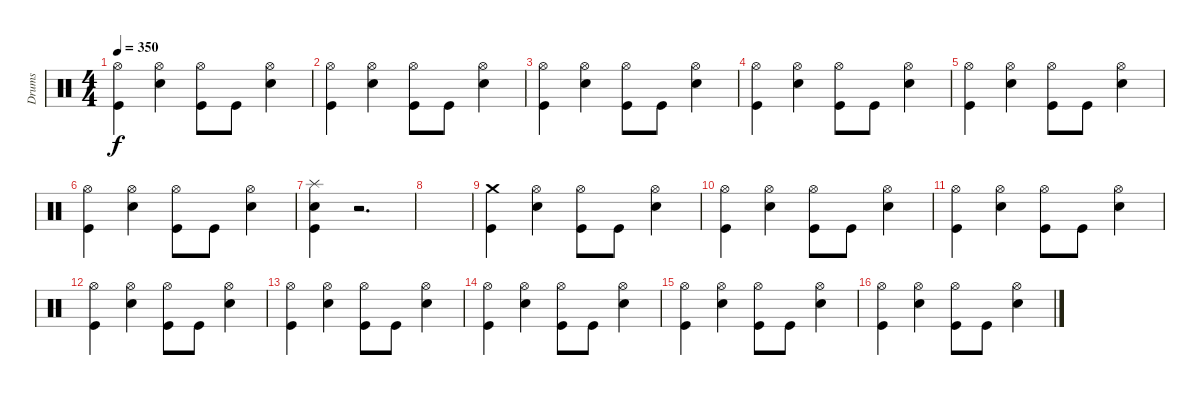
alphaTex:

\track ("Drums" "Drums") {instrument percussion}
\staff {score}
\articulation defaults
\ts (4 4)
\tempo 350
\clef neutral
\ks c
("Hi-Hat (open)" "Kick (hit)").4{dy f} ("Hi-Hat (open)" "Snare (hit) 2").4 ("Hi-Hat (open)" "Kick (hit)").8 "Kick (hit)".8 ("Hi-Hat (open)" "Snare (hit) 2").4 |
("Hi-Hat (open)" "Kick (hit)").4 ("Hi-Hat (open)" "Snare (hit) 2").4 ("Hi-Hat (open)" "Kick (hit)").8 "Kick (hit)".8 ("Hi-Hat (open)" "Snare (hit) 2").4 |
("Hi-Hat (open)" "Kick (hit)").4 ("Hi-Hat (open)" "Snare (hit) 2").4 ("Hi-Hat (open)" "Kick (hit)").8 "Kick (hit)".8 ("Hi-Hat (open)" "Snare (hit) 2").4 |
("Hi-Hat (open)" "Kick (hit)").4 ("Hi-Hat (open)" "Snare (hit) 2").4 ("Hi-Hat (open)" "Kick (hit)").8 "Kick (hit)".8 ("Hi-Hat (open)" "Snare (hit) 2").4 |
("Hi-Hat (open)" "Kick (hit)").4 ("Hi-Hat (open)" "Snare (hit) 2").4 ("Hi-Hat (open)" "Kick (hit)").8 "Kick (hit)".8 ("Hi-Hat (open)" "Snare (hit) 2").4 |
("Hi-Hat (open)" "Kick (hit)").4 ("Hi-Hat (open)" "Snare (hit) 2").4 ("Hi-Hat (open)" "Kick (hit)").8 "Kick (hit)".8 ("Hi-Hat (open)" "Snare (hit) 2").4 |
("Splash (hit)" "Snare (hit) 2" "Kick (hit)").4 r.2{d} |
|
("Crash medium (hit)" "Kick (hit)").4 ("Hi-Hat (open)" "Snare (hit) 2").4 ("Hi-Hat (open)" "Kick (hit)").8 "Kick (hit)".8 ("Hi-Hat (open)" "Snare (hit) 2").4 |
("Hi-Hat (open)" "Kick (hit)").4 ("Hi-Hat (open)" "Snare (hit) 2").4 ("Hi-Hat (open)" "Kick (hit)").8 "Kick (hit)".8 ("Hi-Hat (open)" "Snare (hit) 2").4 |
("Hi-Hat (open)" "Kick (hit)").4 ("Hi-Hat (open)" "Snare (hit) 2").4 ("Hi-Hat (open)" "Kick (hit)").8 "Kick (hit)".8 ("Hi-Hat (open)" "Snare (hit) 2").4 |
("Hi-Hat (open)" "Kick (hit)").4 ("Hi-Hat (open)" "Snare (hit) 2").4 ("Hi-Hat (open)" "Kick (hit)").8 "Kick (hit)".8 ("Hi-Hat (open)" "Snare (hit) 2").4 |
("Hi-Hat (open)" "Kick (hit)").4 ("Hi-Hat (open)" "Snare (hit) 2").4 ("Hi-Hat (open)" "Kick (hit)").8 "Kick (hit)".8 ("Hi-Hat (open)" "Snare (hit) 2").4 |
("Hi-Hat (open)" "Kick (hit)").4 ("Hi-Hat (open)" "Snare (hit) 2").4 ("Hi-Hat (open)" "Kick (hit)").8 "Kick (hit)".8 ("Hi-Hat (open)" "Snare (hit) 2").4 |
("Hi-Hat (open)" "Kick (hit)").4 ("Hi-Hat (open)" "Snare (hit) 2").4 ("Hi-Hat (open)" "Kick (hit)").8 "Kick (hit)".8 ("Hi-Hat (open)" "Snare (hit) 2").4 |
("Hi-Hat (open)" "Kick (hit)").4 ("Hi-Hat (open)" "Snare (hit) 2").4 ("Hi-Hat (open)" "Kick (hit)").8 "Kick (hit)".8 ("Hi-Hat (open)" "Snare (hit) 2").4
